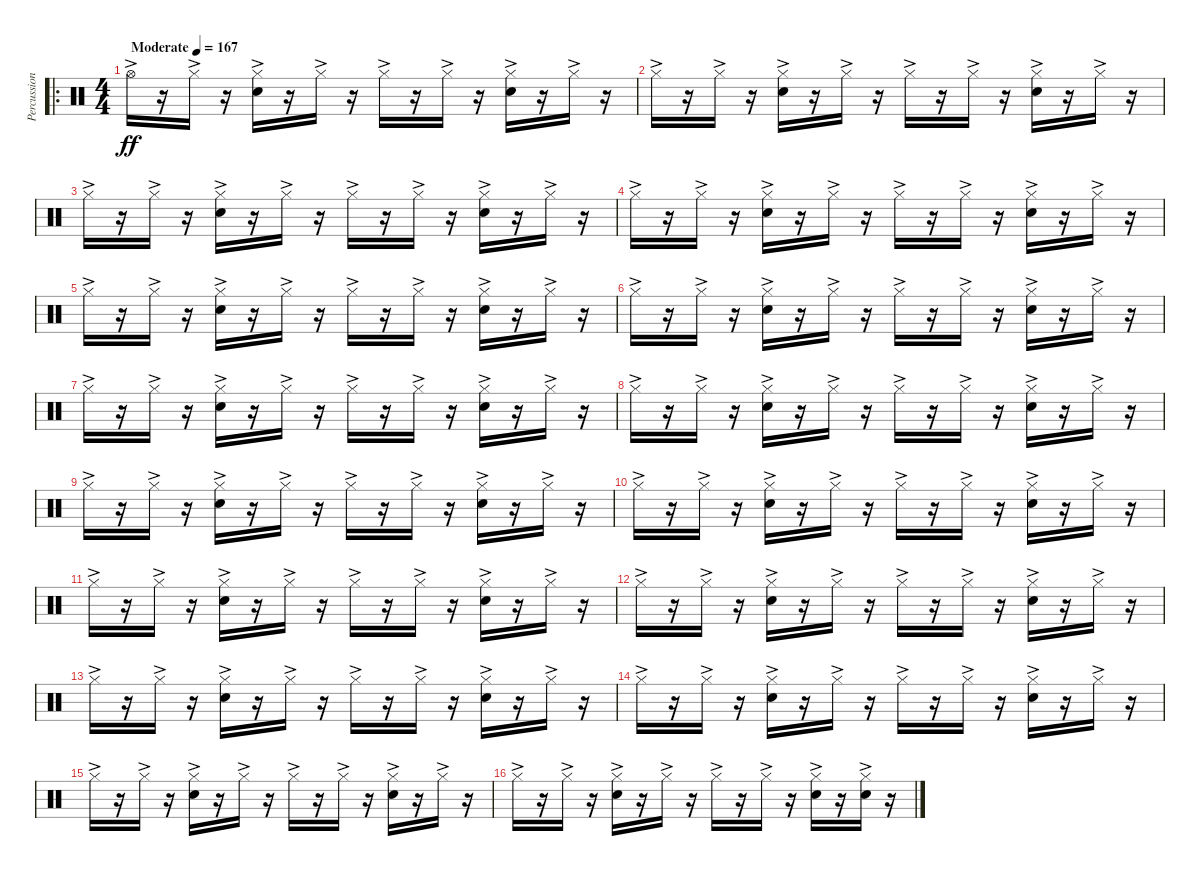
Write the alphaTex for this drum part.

\track ("Percussion" "Percussion") {instrument percussion}
\staff {score}
\articulation defaults
\ro
\ts (4 4)
\tempo (167 "Moderate")
\clef neutral
\ks c "Hi-Hat (open)"{ac}.16{dy ff}
r.16 "Hi-Hat (closed)"{ac}.16 r.16 ("Hi-Hat (closed)"{ac} "Snare (hit) 2"{ac}).16 r.16 "Hi-Hat (closed)"{ac}.16 r.16 "Hi-Hat (closed)"{ac}.16 r.16 "Hi-Hat (closed)"{ac}.16 r.16 ("Hi-Hat (closed)"{ac} "Snare (hit) 2"{ac}).16 r.16 "Hi-Hat (closed)"{ac}.16 r.16 |
"Hi-Hat (closed)"{ac}.16 r.16 "Hi-Hat (closed)"{ac}.16 r.16 ("Hi-Hat (closed)"{ac} "Snare (hit) 2"{ac}).16 r.16 "Hi-Hat (closed)"{ac}.16 r.16 "Hi-Hat (closed)"{ac}.16 r.16 "Hi-Hat (closed)"{ac}.16 r.16 ("Hi-Hat (closed)"{ac} "Snare (hit) 2"{ac}).16 r.16 "Hi-Hat (closed)"{ac}.16 r.16 |
"Hi-Hat (closed)"{ac}.16 r.16 "Hi-Hat (closed)"{ac}.16 r.16 ("Hi-Hat (closed)"{ac} "Snare (hit) 2"{ac}).16 r.16 "Hi-Hat (closed)"{ac}.16 r.16 "Hi-Hat (closed)"{ac}.16 r.16 "Hi-Hat (closed)"{ac}.16 r.16 ("Hi-Hat (closed)"{ac} "Snare (hit) 2"{ac}).16 r.16 "Hi-Hat (closed)"{ac}.16 r.16 |
"Hi-Hat (closed)"{ac}.16 r.16 "Hi-Hat (closed)"{ac}.16 r.16 ("Hi-Hat (closed)"{ac} "Snare (hit) 2"{ac}).16 r.16 "Hi-Hat (closed)"{ac}.16 r.16 "Hi-Hat (closed)"{ac}.16 r.16 "Hi-Hat (closed)"{ac}.16 r.16 ("Hi-Hat (closed)"{ac} "Snare (hit) 2"{ac}).16 r.16 "Hi-Hat (closed)"{ac}.16 r.16 |
"Hi-Hat (closed)"{ac}.16 r.16 "Hi-Hat (closed)"{ac}.16 r.16 ("Hi-Hat (closed)"{ac} "Snare (hit) 2"{ac}).16 r.16 "Hi-Hat (closed)"{ac}.16 r.16 "Hi-Hat (closed)"{ac}.16 r.16 "Hi-Hat (closed)"{ac}.16 r.16 ("Hi-Hat (closed)"{ac} "Snare (hit) 2"{ac}).16 r.16 "Hi-Hat (closed)"{ac}.16 r.16 |
"Hi-Hat (closed)"{ac}.16 r.16 "Hi-Hat (closed)"{ac}.16 r.16 ("Hi-Hat (closed)"{ac} "Snare (hit) 2"{ac}).16 r.16 "Hi-Hat (closed)"{ac}.16 r.16 "Hi-Hat (closed)"{ac}.16 r.16 "Hi-Hat (closed)"{ac}.16 r.16 ("Hi-Hat (closed)"{ac} "Snare (hit) 2"{ac}).16 r.16 "Hi-Hat (closed)"{ac}.16 r.16 |
"Hi-Hat (closed)"{ac}.16 r.16 "Hi-Hat (closed)"{ac}.16 r.16 ("Hi-Hat (closed)"{ac} "Snare (hit) 2"{ac}).16 r.16 "Hi-Hat (closed)"{ac}.16 r.16 "Hi-Hat (closed)"{ac}.16 r.16 "Hi-Hat (closed)"{ac}.16 r.16 ("Hi-Hat (closed)"{ac} "Snare (hit) 2"{ac}).16 r.16 "Hi-Hat (closed)"{ac}.16 r.16 |
"Hi-Hat (closed)"{ac}.16 r.16 "Hi-Hat (closed)"{ac}.16 r.16 ("Hi-Hat (closed)"{ac} "Snare (hit) 2"{ac}).16 r.16 "Hi-Hat (closed)"{ac}.16 r.16 "Hi-Hat (closed)"{ac}.16 r.16 "Hi-Hat (closed)"{ac}.16 r.16 ("Hi-Hat (closed)"{ac} "Snare (hit) 2"{ac}).16 r.16 "Hi-Hat (closed)"{ac}.16 r.16 |
"Hi-Hat (closed)"{ac}.16 r.16 "Hi-Hat (closed)"{ac}.16 r.16 ("Hi-Hat (closed)"{ac} "Snare (hit) 2"{ac}).16 r.16 "Hi-Hat (closed)"{ac}.16 r.16 "Hi-Hat (closed)"{ac}.16 r.16 "Hi-Hat (closed)"{ac}.16 r.16 ("Hi-Hat (closed)"{ac} "Snare (hit) 2"{ac}).16 r.16 "Hi-Hat (closed)"{ac}.16 r.16 |
"Hi-Hat (closed)"{ac}.16 r.16 "Hi-Hat (closed)"{ac}.16 r.16 ("Hi-Hat (closed)"{ac} "Snare (hit) 2"{ac}).16 r.16 "Hi-Hat (closed)"{ac}.16 r.16 "Hi-Hat (closed)"{ac}.16 r.16 "Hi-Hat (closed)"{ac}.16 r.16 ("Hi-Hat (closed)"{ac} "Snare (hit) 2"{ac}).16 r.16 "Hi-Hat (closed)"{ac}.16 r.16 |
"Hi-Hat (closed)"{ac}.16 r.16 "Hi-Hat (closed)"{ac}.16 r.16 ("Hi-Hat (closed)"{ac} "Snare (hit) 2"{ac}).16 r.16 "Hi-Hat (closed)"{ac}.16 r.16 "Hi-Hat (closed)"{ac}.16 r.16 "Hi-Hat (closed)"{ac}.16 r.16 ("Hi-Hat (closed)"{ac} "Snare (hit) 2"{ac}).16 r.16 "Hi-Hat (closed)"{ac}.16 r.16 |
"Hi-Hat (closed)"{ac}.16 r.16 "Hi-Hat (closed)"{ac}.16 r.16 ("Hi-Hat (closed)"{ac} "Snare (hit) 2"{ac}).16 r.16 "Hi-Hat (closed)"{ac}.16 r.16 "Hi-Hat (closed)"{ac}.16 r.16 "Hi-Hat (closed)"{ac}.16 r.16 ("Hi-Hat (closed)"{ac} "Snare (hit) 2"{ac}).16 r.16 "Hi-Hat (closed)"{ac}.16 r.16 |
"Hi-Hat (closed)"{ac}.16 r.16 "Hi-Hat (closed)"{ac}.16 r.16 ("Hi-Hat (closed)"{ac} "Snare (hit) 2"{ac}).16 r.16 "Hi-Hat (closed)"{ac}.16 r.16 "Hi-Hat (closed)"{ac}.16 r.16 "Hi-Hat (closed)"{ac}.16 r.16 ("Hi-Hat (closed)"{ac} "Snare (hit) 2"{ac}).16 r.16 "Hi-Hat (closed)"{ac}.16 r.16 |
"Hi-Hat (closed)"{ac}.16 r.16 "Hi-Hat (closed)"{ac}.16 r.16 ("Hi-Hat (closed)"{ac} "Snare (hit) 2"{ac}).16 r.16 "Hi-Hat (closed)"{ac}.16 r.16 "Hi-Hat (closed)"{ac}.16 r.16 "Hi-Hat (closed)"{ac}.16 r.16 ("Hi-Hat (closed)"{ac} "Snare (hit) 2"{ac}).16 r.16 "Hi-Hat (closed)"{ac}.16 r.16 |
"Hi-Hat (closed)"{ac}.16 r.16 "Hi-Hat (closed)"{ac}.16 r.16 ("Hi-Hat (closed)"{ac} "Snare (hit) 2"{ac}).16 r.16 "Hi-Hat (closed)"{ac}.16 r.16 "Hi-Hat (closed)"{ac}.16 r.16 "Hi-Hat (closed)"{ac}.16 r.16 ("Hi-Hat (closed)"{ac} "Snare (hit) 2"{ac}).16 r.16 "Hi-Hat (closed)"{ac}.16 r.16 |
"Hi-Hat (closed)"{ac}.16 r.16 "Hi-Hat (closed)"{ac}.16 r.16 ("Hi-Hat (closed)"{ac} "Snare (hit) 2"{ac}).16 r.16 "Hi-Hat (closed)"{ac}.16 r.16 "Hi-Hat (closed)"{ac}.16 r.16 "Hi-Hat (closed)"{ac}.16 r.16 ("Hi-Hat (closed)"{ac} "Snare (hit) 2"{ac}).16 r.16 ("Hi-Hat (closed)"{ac} "Snare (hit) 2"{ac}).16 r.16
